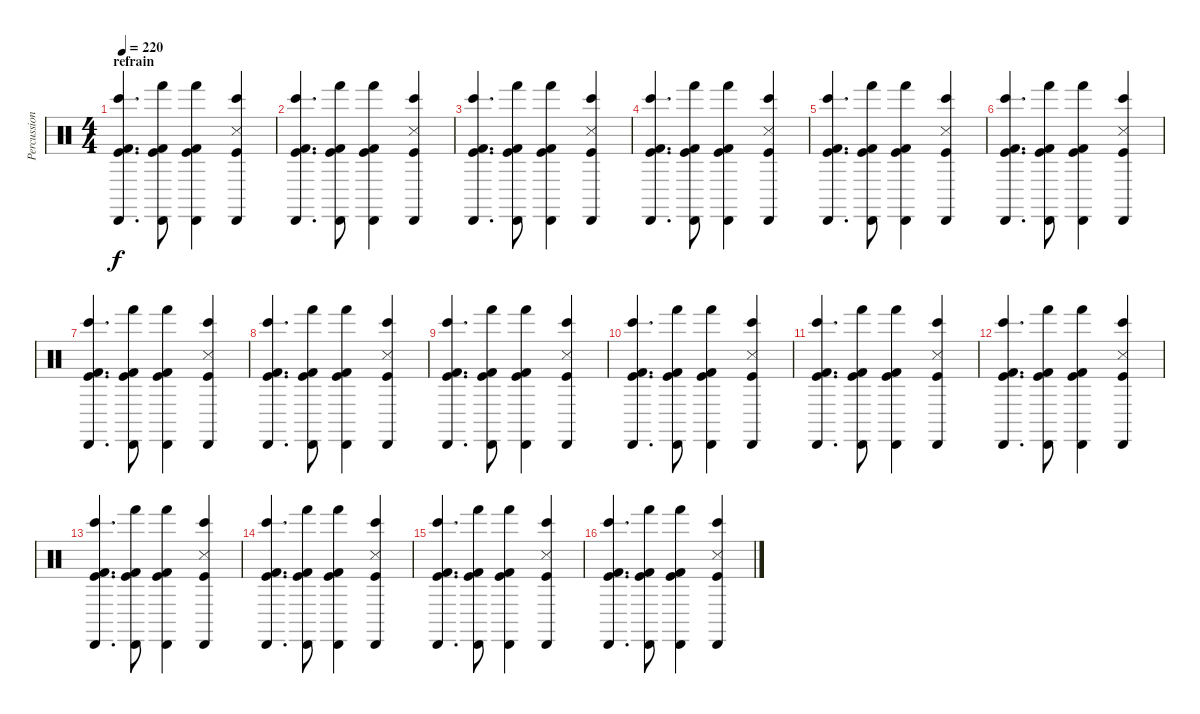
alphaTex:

\track ("Percussions" "Percussion") {instrument percussion}
\staff {score}
\articulation defaults
\ts (4 4)
\section ("" "refrain")
\tempo 220
\clef neutral
\ks c
("Kick (hit)" "Kick (hit) 2" "Bongo High (hit)" "Cabasa (hit)").4{d dy f} ("Kick (hit)" "Kick (hit) 2" "Hand (hit)" "Cabasa (hit)").8 ("Kick (hit)" "Kick (hit) 2" "Hand (hit)" "Cabasa (hit)").4 ("Kick (hit)" "Snare (side stick) 3" "Bongo High (hit)" "Cabasa (hit)").4 |
("Kick (hit)" "Kick (hit) 2" "Bongo High (hit)" "Cabasa (hit)").4{d} ("Kick (hit)" "Kick (hit) 2" "Hand (hit)" "Cabasa (hit)").8 ("Kick (hit)" "Kick (hit) 2" "Hand (hit)" "Cabasa (hit)").4 ("Kick (hit)" "Snare (side stick) 3" "Bongo High (hit)" "Cabasa (hit)").4 |
("Kick (hit)" "Kick (hit) 2" "Bongo High (hit)" "Cabasa (hit)").4{d} ("Kick (hit)" "Kick (hit) 2" "Hand (hit)" "Cabasa (hit)").8 ("Kick (hit)" "Kick (hit) 2" "Hand (hit)" "Cabasa (hit)").4 ("Kick (hit)" "Snare (side stick) 3" "Bongo High (hit)" "Cabasa (hit)").4 |
("Kick (hit)" "Kick (hit) 2" "Bongo High (hit)" "Cabasa (hit)").4{d} ("Kick (hit)" "Kick (hit) 2" "Hand (hit)" "Cabasa (hit)").8 ("Kick (hit)" "Kick (hit) 2" "Hand (hit)" "Cabasa (hit)").4 ("Kick (hit)" "Snare (side stick) 3" "Bongo High (hit)" "Cabasa (hit)").4 |
("Kick (hit)" "Kick (hit) 2" "Bongo High (hit)" "Cabasa (hit)").4{d} ("Kick (hit)" "Kick (hit) 2" "Hand (hit)" "Cabasa (hit)").8 ("Kick (hit)" "Kick (hit) 2" "Hand (hit)" "Cabasa (hit)").4 ("Kick (hit)" "Snare (side stick) 3" "Bongo High (hit)" "Cabasa (hit)").4 |
("Kick (hit)" "Kick (hit) 2" "Bongo High (hit)" "Cabasa (hit)").4{d} ("Kick (hit)" "Kick (hit) 2" "Hand (hit)" "Cabasa (hit)").8 ("Kick (hit)" "Kick (hit) 2" "Hand (hit)" "Cabasa (hit)").4 ("Kick (hit)" "Snare (side stick) 3" "Bongo High (hit)" "Cabasa (hit)").4 |
("Kick (hit)" "Kick (hit) 2" "Bongo High (hit)" "Cabasa (hit)").4{d} ("Kick (hit)" "Kick (hit) 2" "Hand (hit)" "Cabasa (hit)").8 ("Kick (hit)" "Kick (hit) 2" "Hand (hit)" "Cabasa (hit)").4 ("Kick (hit)" "Snare (side stick) 3" "Bongo High (hit)" "Cabasa (hit)").4 |
("Kick (hit)" "Kick (hit) 2" "Bongo High (hit)" "Cabasa (hit)").4{d} ("Kick (hit)" "Kick (hit) 2" "Hand (hit)" "Cabasa (hit)").8 ("Kick (hit)" "Kick (hit) 2" "Hand (hit)" "Cabasa (hit)").4 ("Kick (hit)" "Snare (side stick) 3" "Bongo High (hit)" "Cabasa (hit)").4 |
("Kick (hit)" "Kick (hit) 2" "Bongo High (hit)" "Cabasa (hit)").4{d} ("Kick (hit)" "Kick (hit) 2" "Hand (hit)" "Cabasa (hit)").8 ("Kick (hit)" "Kick (hit) 2" "Hand (hit)" "Cabasa (hit)").4 ("Kick (hit)" "Snare (side stick) 3" "Bongo High (hit)" "Cabasa (hit)").4 |
("Kick (hit)" "Kick (hit) 2" "Bongo High (hit)" "Cabasa (hit)").4{d} ("Kick (hit)" "Kick (hit) 2" "Hand (hit)" "Cabasa (hit)").8 ("Kick (hit)" "Kick (hit) 2" "Hand (hit)" "Cabasa (hit)").4 ("Kick (hit)" "Snare (side stick) 3" "Bongo High (hit)" "Cabasa (hit)").4 |
("Kick (hit)" "Kick (hit) 2" "Bongo High (hit)" "Cabasa (hit)").4{d} ("Kick (hit)" "Kick (hit) 2" "Hand (hit)" "Cabasa (hit)").8 ("Kick (hit)" "Kick (hit) 2" "Hand (hit)" "Cabasa (hit)").4 ("Kick (hit)" "Snare (side stick) 3" "Bongo High (hit)" "Cabasa (hit)").4 |
("Kick (hit)" "Kick (hit) 2" "Bongo High (hit)" "Cabasa (hit)").4{d} ("Kick (hit)" "Kick (hit) 2" "Hand (hit)" "Cabasa (hit)").8 ("Kick (hit)" "Kick (hit) 2" "Hand (hit)" "Cabasa (hit)").4 ("Kick (hit)" "Snare (side stick) 3" "Bongo High (hit)" "Cabasa (hit)").4 |
("Kick (hit)" "Kick (hit) 2" "Bongo High (hit)" "Cabasa (hit)").4{d} ("Kick (hit)" "Kick (hit) 2" "Hand (hit)" "Cabasa (hit)").8 ("Kick (hit)" "Kick (hit) 2" "Hand (hit)" "Cabasa (hit)").4 ("Kick (hit)" "Snare (side stick) 3" "Bongo High (hit)" "Cabasa (hit)").4 |
("Kick (hit)" "Kick (hit) 2" "Bongo High (hit)" "Cabasa (hit)").4{d} ("Kick (hit)" "Kick (hit) 2" "Hand (hit)" "Cabasa (hit)").8 ("Kick (hit)" "Kick (hit) 2" "Hand (hit)" "Cabasa (hit)").4 ("Kick (hit)" "Snare (side stick) 3" "Bongo High (hit)" "Cabasa (hit)").4 |
("Kick (hit)" "Kick (hit) 2" "Bongo High (hit)" "Cabasa (hit)").4{d} ("Kick (hit)" "Kick (hit) 2" "Hand (hit)" "Cabasa (hit)").8 ("Kick (hit)" "Kick (hit) 2" "Hand (hit)" "Cabasa (hit)").4 ("Kick (hit)" "Snare (side stick) 3" "Bongo High (hit)" "Cabasa (hit)").4 |
("Kick (hit)" "Kick (hit) 2" "Bongo High (hit)" "Cabasa (hit)").4{d} ("Kick (hit)" "Kick (hit) 2" "Hand (hit)" "Cabasa (hit)").8 ("Kick (hit)" "Kick (hit) 2" "Hand (hit)" "Cabasa (hit)").4 ("Kick (hit)" "Snare (side stick) 3" "Bongo High (hit)" "Cabasa (hit)").4
